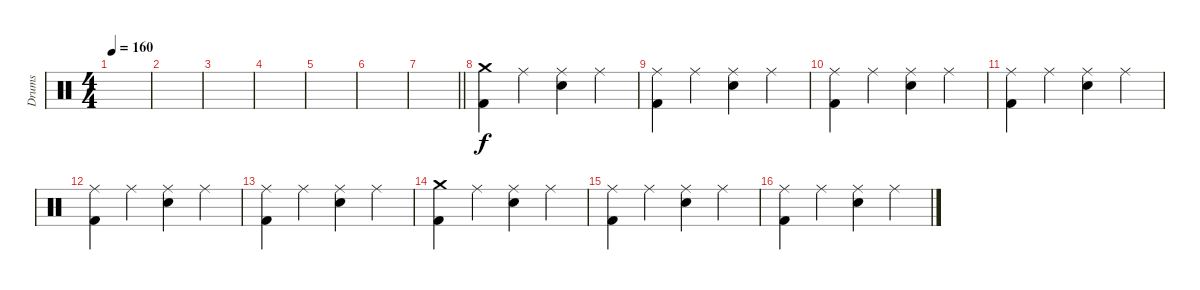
\track ("Drums" "Drums") {instrument percussion}
\staff {score}
\articulation defaults
\ts (4 4)
\tempo 160
\clef neutral
\ks c
|
|
|
|
|
|
\barLineRight lightlight
|
\section ("" "")
("Crash medium (hit)" "Kick (hit) 2").4 "Ride (middle)".4 ("Ride (middle)" "Electric Snare (hit)").4 "Ride (middle)".4 |
("Ride (middle)" "Kick (hit) 2").4 "Ride (middle)".4 ("Ride (middle)" "Electric Snare (hit)").4 "Ride (middle)".4 |
("Ride (middle)" "Kick (hit) 2").4 "Ride (middle)".4 ("Ride (middle)" "Electric Snare (hit)").4 "Ride (middle)".4 |
("Ride (middle)" "Kick (hit) 2").4 "Ride (middle)".4 ("Ride (middle)" "Electric Snare (hit)").4 "Ride (middle)".4 |
("Ride (middle)" "Kick (hit) 2").4 "Ride (middle)".4 ("Ride (middle)" "Electric Snare (hit)").4 "Ride (middle)".4 |
("Ride (middle)" "Kick (hit) 2").4 "Ride (middle)".4 ("Ride (middle)" "Electric Snare (hit)").4 "Ride (middle)".4 |
("Crash medium (hit)" "Kick (hit) 2").4 "Ride (middle)".4 ("Ride (middle)" "Electric Snare (hit)").4 "Ride (middle)".4 |
("Ride (middle)" "Kick (hit) 2").4 "Ride (middle)".4 ("Ride (middle)" "Electric Snare (hit)").4 "Ride (middle)".4 |
("Ride (middle)" "Kick (hit) 2").4 "Ride (middle)".4 ("Ride (middle)" "Electric Snare (hit)").4 "Ride (middle)".4
